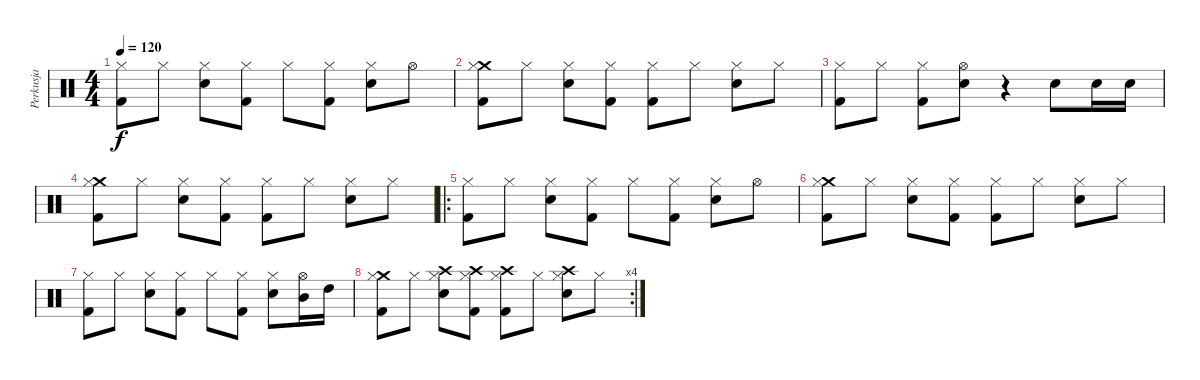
\track ("Perkusja" "Perkusja") {instrument percussion}
\staff {score}
\articulation defaults
\ts (4 4)
\tempo 120
\clef neutral
\ks c
("Hi-Hat (closed)" "Kick (hit) 2").8{dy f} "Hi-Hat (closed)".8 ("Hi-Hat (closed)" "Electric Snare (hit)").8 ("Hi-Hat (closed)" "Kick (hit) 2").8 "Hi-Hat (closed)".8 ("Hi-Hat (closed)" "Kick (hit) 2").8 ("Hi-Hat (closed)" "Electric Snare (hit)").8 "Hi-Hat (open)".8 |
("Crash medium (hit)" "Hi-Hat (closed)" "Kick (hit) 2").8 "Hi-Hat (closed)".8 ("Hi-Hat (closed)" "Electric Snare (hit)").8 ("Hi-Hat (closed)" "Kick (hit) 2").8 ("Hi-Hat (closed)" "Kick (hit) 2").8 "Hi-Hat (closed)".8 ("Hi-Hat (closed)" "Electric Snare (hit)").8 "Hi-Hat (closed)".8 |
("Hi-Hat (closed)" "Kick (hit) 2").8 "Hi-Hat (closed)".8 ("Hi-Hat (closed)" "Kick (hit) 2").8 ("Hi-Hat (open)" "Electric Snare (hit)").8 r.4 "Electric Snare (hit)".8 "Electric Snare (hit)".16 "Electric Snare (hit)".16 |
("Crash medium (hit)" "Hi-Hat (closed)" "Kick (hit) 2").8 "Hi-Hat (closed)".8 ("Hi-Hat (closed)" "Electric Snare (hit)").8 ("Hi-Hat (closed)" "Kick (hit) 2").8 ("Hi-Hat (closed)" "Kick (hit) 2").8 "Hi-Hat (closed)".8 ("Hi-Hat (closed)" "Electric Snare (hit)").8 "Hi-Hat (closed)".8 |
\ro
("Hi-Hat (closed)" "Kick (hit) 2").8 "Hi-Hat (closed)".8 ("Hi-Hat (closed)" "Electric Snare (hit)").8 ("Hi-Hat (closed)" "Kick (hit) 2").8 "Hi-Hat (closed)".8 ("Hi-Hat (closed)" "Kick (hit) 2").8 ("Hi-Hat (closed)" "Electric Snare (hit)").8 "Hi-Hat (open)".8 |
("Crash medium (hit)" "Hi-Hat (closed)" "Kick (hit) 2").8 "Hi-Hat (closed)".8 ("Hi-Hat (closed)" "Electric Snare (hit)").8 ("Hi-Hat (closed)" "Kick (hit) 2").8 ("Hi-Hat (closed)" "Kick (hit) 2").8 "Hi-Hat (closed)".8 ("Hi-Hat (closed)" "Electric Snare (hit)").8 "Hi-Hat (closed)".8 |
("Hi-Hat (closed)" "Kick (hit) 2").8 "Hi-Hat (closed)".8 ("Hi-Hat (closed)" "Electric Snare (hit)").8 ("Hi-Hat (closed)" "Kick (hit) 2").8 "Hi-Hat (closed)".8 ("Hi-Hat (closed)" "Kick (hit) 2").8 ("Hi-Hat (closed)" "Electric Snare (hit)").8 ("Hi-Hat (open)" "Mid Tom (hit)").16 "High Tom (hit)".16 |
\rc 4
("Crash medium (hit)" "Hi-Hat (closed)" "Kick (hit) 2").8 "Hi-Hat (closed)".8 ("Crash high (hit)" "Hi-Hat (closed)" "Electric Snare (hit)").8 ("Crash high (hit)" "Hi-Hat (closed)" "Kick (hit) 2").8 ("Crash high (hit)" "Hi-Hat (closed)" "Kick (hit) 2").8 "Hi-Hat (closed)".8 ("Crash high (hit)" "Hi-Hat (closed)" "Electric Snare (hit)").8 "Hi-Hat (closed)".8
